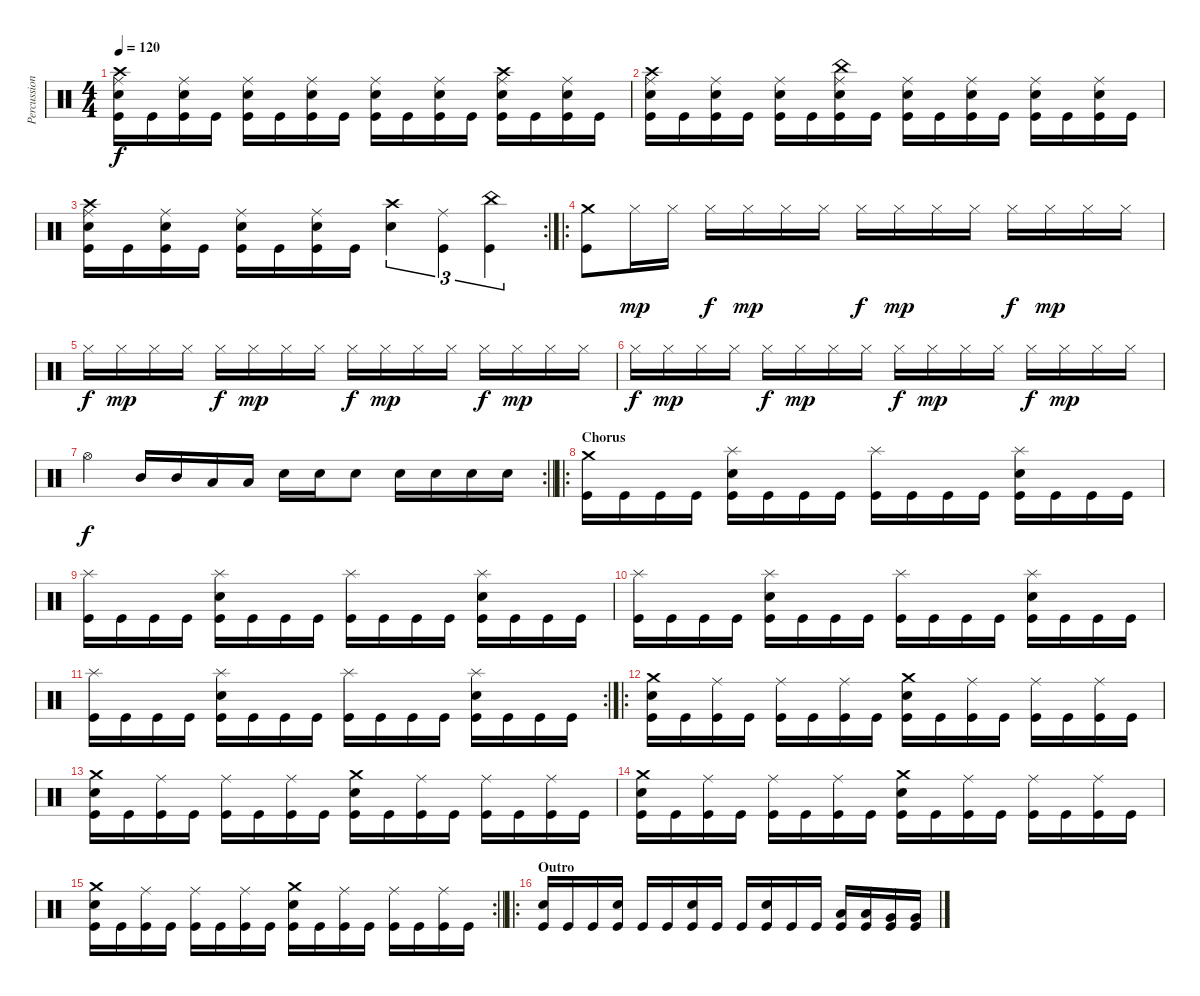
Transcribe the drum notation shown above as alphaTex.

\track ("Percussions" "Percussion") {instrument percussion}
\staff {score}
\articulation defaults
\ts (4 4)
\tempo 120
\clef neutral
\ks c
("Crash high (hit)" "Ride (middle)" "Electric Snare (hit)" "Kick (hit)").16{dy f} "Kick (hit)".16 ("Ride (middle)" "Electric Snare (hit)" "Kick (hit)").16 "Kick (hit)".16 ("Ride (middle)" "Electric Snare (hit)" "Kick (hit)").16 "Kick (hit)".16 ("Ride (middle)" "Electric Snare (hit)" "Kick (hit)").16 "Kick (hit)".16 ("Ride (middle)" "Electric Snare (hit)" "Kick (hit)").16 "Kick (hit)".16 ("Ride (middle)" "Electric Snare (hit)" "Kick (hit)").16 "Kick (hit)".16 ("Crash high (hit)" "Ride (middle)" "Electric Snare (hit)" "Kick (hit)").16 "Kick (hit)".16 ("Ride (middle)" "Electric Snare (hit)" "Kick (hit)").16 "Kick (hit)".16 |
("Crash high (hit)" "Ride (middle)" "Electric Snare (hit)" "Kick (hit)").16 "Kick (hit)".16 ("Ride (middle)" "Electric Snare (hit)" "Kick (hit)").16 "Kick (hit)".16 ("Ride (middle)" "Electric Snare (hit)" "Kick (hit)").16 "Kick (hit)".16 ("China (hit)" "Ride (middle)" "Electric Snare (hit)" "Kick (hit)").16 "Kick (hit)".16 ("Ride (middle)" "Electric Snare (hit)" "Kick (hit)").16 "Kick (hit)".16 ("Ride (middle)" "Electric Snare (hit)" "Kick (hit)").16 "Kick (hit)".16 ("Ride (middle)" "Electric Snare (hit)" "Kick (hit)").16 "Kick (hit)".16 ("Ride (middle)" "Electric Snare (hit)" "Kick (hit)").16 "Kick (hit)".16 |
\rc 2
("Crash high (hit)" "Ride (middle)" "Electric Snare (hit)" "Kick (hit)").16 "Kick (hit)".16 ("Ride (middle)" "Electric Snare (hit)" "Kick (hit)").16 "Kick (hit)".16 ("Ride (middle)" "Electric Snare (hit)" "Kick (hit)").16 "Kick (hit)".16 ("Ride (middle)" "Electric Snare (hit)" "Kick (hit)").16 "Kick (hit)".16 ("Crash high (hit)" "Electric Snare (hit)").4{tu (3 2)} ("Ride (middle)" "Kick (hit)").4{tu (3 2)} ("China (hit)" "Kick (hit)").4{tu (3 2)} |
\ro
("Kick (hit)" "Crash medium (hit)").8 "Hi-Hat (closed)".16{dy mp} "Hi-Hat (closed)".16 "Hi-Hat (closed)".16{dy f} "Hi-Hat (closed)".16{dy mp} "Hi-Hat (closed)".16 "Hi-Hat (closed)".16 "Hi-Hat (closed)".16{dy f} "Hi-Hat (closed)".16{dy mp} "Hi-Hat (closed)".16 "Hi-Hat (closed)".16 "Hi-Hat (closed)".16{dy f} "Hi-Hat (closed)".16{dy mp} "Hi-Hat (closed)".16 "Hi-Hat (closed)".16 |
"Hi-Hat (closed)".16{dy f} "Hi-Hat (closed)".16{dy mp} "Hi-Hat (closed)".16 "Hi-Hat (closed)".16 "Hi-Hat (closed)".16{dy f} "Hi-Hat (closed)".16{dy mp} "Hi-Hat (closed)".16 "Hi-Hat (closed)".16 "Hi-Hat (closed)".16{dy f} "Hi-Hat (closed)".16{dy mp} "Hi-Hat (closed)".16 "Hi-Hat (closed)".16 "Hi-Hat (closed)".16{dy f} "Hi-Hat (closed)".16{dy mp} "Hi-Hat (closed)".16 "Hi-Hat (closed)".16 |
"Hi-Hat (closed)".16{dy f} "Hi-Hat (closed)".16{dy mp} "Hi-Hat (closed)".16 "Hi-Hat (closed)".16 "Hi-Hat (closed)".16{dy f} "Hi-Hat (closed)".16{dy mp} "Hi-Hat (closed)".16 "Hi-Hat (closed)".16 "Hi-Hat (closed)".16{dy f} "Hi-Hat (closed)".16{dy mp} "Hi-Hat (closed)".16 "Hi-Hat (closed)".16 "Hi-Hat (closed)".16{dy f} "Hi-Hat (closed)".16{dy mp} "Hi-Hat (closed)".16 "Hi-Hat (closed)".16 |
\rc 2
\barLineRight lightlight "Hi-Hat (open)".4{dy f} "Mid Tom (hit)".16 "Mid Tom (hit)".16 "Low Tom (hit)".16 "Low Tom (hit)".16 "Electric Snare (hit)".16 "Electric Snare (hit)".16 "Electric Snare (hit)".8 "Electric Snare (hit)".16 "Electric Snare (hit)".16 "Electric Snare (hit)".16 "Electric Snare (hit)".16
|
\ro
\section ("" "Chorus")
("Kick (hit)" "Crash medium (hit)").16 "Kick (hit)".16 "Kick (hit)".16 "Kick (hit)".16 ("Kick (hit)" "Electric Snare (hit)" "Splash (hit)").16 "Kick (hit)".16 "Kick (hit)".16 "Kick (hit)".16 ("Kick (hit)" "Splash (hit)").16 "Kick (hit)".16 "Kick (hit)".16 "Kick (hit)".16 ("Kick (hit)" "Electric Snare (hit)" "Splash (hit)").16 "Kick (hit)".16 "Kick (hit)".16 "Kick (hit)".16 |
("Kick (hit)" "Splash (hit)").16 "Kick (hit)".16 "Kick (hit)".16 "Kick (hit)".16 ("Kick (hit)" "Electric Snare (hit)" "Splash (hit)").16 "Kick (hit)".16 "Kick (hit)".16 "Kick (hit)".16 ("Kick (hit)" "Splash (hit)").16 "Kick (hit)".16 "Kick (hit)".16 "Kick (hit)".16 ("Kick (hit)" "Electric Snare (hit)" "Splash (hit)").16 "Kick (hit)".16 "Kick (hit)".16 "Kick (hit)".16 |
("Kick (hit)" "Splash (hit)").16 "Kick (hit)".16 "Kick (hit)".16 "Kick (hit)".16 ("Kick (hit)" "Electric Snare (hit)" "Splash (hit)").16 "Kick (hit)".16 "Kick (hit)".16 "Kick (hit)".16 ("Kick (hit)" "Splash (hit)").16 "Kick (hit)".16 "Kick (hit)".16 "Kick (hit)".16 ("Kick (hit)" "Electric Snare (hit)" "Splash (hit)").16 "Kick (hit)".16 "Kick (hit)".16 "Kick (hit)".16 |
\rc 2
("Kick (hit)" "Splash (hit)").16 "Kick (hit)".16 "Kick (hit)".16 "Kick (hit)".16 ("Kick (hit)" "Electric Snare (hit)" "Splash (hit)").16 "Kick (hit)".16 "Kick (hit)".16 "Kick (hit)".16 ("Kick (hit)" "Splash (hit)").16 "Kick (hit)".16 "Kick (hit)".16 "Kick (hit)".16 ("Kick (hit)" "Electric Snare (hit)" "Splash (hit)").16 "Kick (hit)".16 "Kick (hit)".16 "Kick (hit)".16 |
\ro
("Kick (hit)" "Electric Snare (hit)" "Crash medium (hit)").16 "Kick (hit)".16 ("Kick (hit)" "Ride (middle)").16 "Kick (hit)".16 ("Kick (hit)" "Ride (middle)").16 "Kick (hit)".16 ("Kick (hit)" "Ride (middle)").16 "Kick (hit)".16 ("Kick (hit)" "Electric Snare (hit)" "Crash medium (hit)").16 "Kick (hit)".16 ("Kick (hit)" "Ride (middle)").16 "Kick (hit)".16 ("Kick (hit)" "Ride (middle)").16 "Kick (hit)".16 ("Kick (hit)" "Ride (middle)").16 "Kick (hit)".16 |
("Kick (hit)" "Electric Snare (hit)" "Crash medium (hit)").16 "Kick (hit)".16 ("Kick (hit)" "Ride (middle)").16 "Kick (hit)".16 ("Kick (hit)" "Ride (middle)").16 "Kick (hit)".16 ("Kick (hit)" "Ride (middle)").16 "Kick (hit)".16 ("Kick (hit)" "Electric Snare (hit)" "Crash medium (hit)").16 "Kick (hit)".16 ("Kick (hit)" "Ride (middle)").16 "Kick (hit)".16 ("Kick (hit)" "Ride (middle)").16 "Kick (hit)".16 ("Kick (hit)" "Ride (middle)").16 "Kick (hit)".16 |
("Kick (hit)" "Electric Snare (hit)" "Crash medium (hit)").16 "Kick (hit)".16 ("Kick (hit)" "Ride (middle)").16 "Kick (hit)".16 ("Kick (hit)" "Ride (middle)").16 "Kick (hit)".16 ("Kick (hit)" "Ride (middle)").16 "Kick (hit)".16 ("Kick (hit)" "Electric Snare (hit)" "Crash medium (hit)").16 "Kick (hit)".16 ("Kick (hit)" "Ride (middle)").16 "Kick (hit)".16 ("Kick (hit)" "Ride (middle)").16 "Kick (hit)".16 ("Kick (hit)" "Ride (middle)").16 "Kick (hit)".16 |
\rc 2
\barLineRight lightlight
("Kick (hit)" "Electric Snare (hit)" "Crash medium (hit)").16 "Kick (hit)".16 ("Kick (hit)" "Ride (middle)").16 "Kick (hit)".16 ("Kick (hit)" "Ride (middle)").16 "Kick (hit)".16 ("Kick (hit)" "Ride (middle)").16 "Kick (hit)".16 ("Kick (hit)" "Electric Snare (hit)" "Crash medium (hit)").16 "Kick (hit)".16 ("Kick (hit)" "Ride (middle)").16 "Kick (hit)".16 ("Kick (hit)" "Ride (middle)").16 "Kick (hit)".16 ("Kick (hit)" "Ride (middle)").16 "Kick (hit)".16 |
\ro
\section ("" "Outro")
("Kick (hit)" "Electric Snare (hit)").16 "Kick (hit)".16 "Kick (hit)".16 ("Kick (hit)" "Electric Snare (hit)").16 "Kick (hit)".16 "Kick (hit)".16 ("Kick (hit)" "Electric Snare (hit)").16 "Kick (hit)".16 "Kick (hit)".16 ("Kick (hit)" "Electric Snare (hit)").16 "Kick (hit)".16 "Kick (hit)".16 ("Kick (hit)" "Low Tom (hit)").16 ("Kick (hit)" "Low Tom (hit)").16 ("Kick (hit)" "Very Low Tom (hit)").16 ("Kick (hit)" "Very Low Tom (hit)").16
